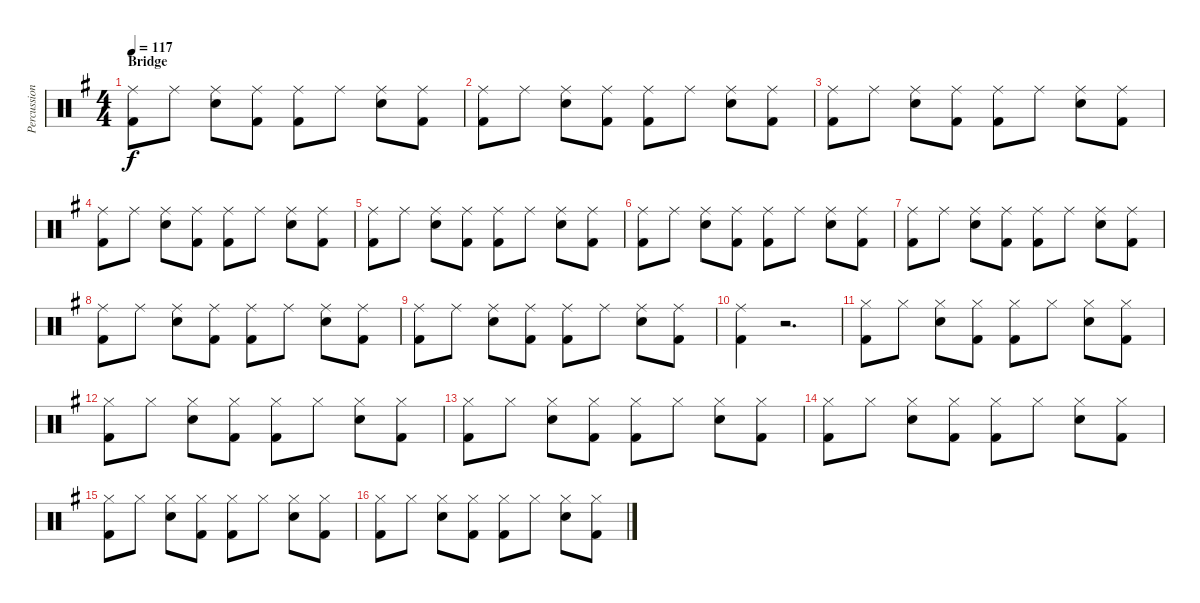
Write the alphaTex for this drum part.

\track ("Percussion" "Percussion") {instrument percussion}
\staff {score}
\articulation defaults
\ts (4 4)
\section ("" "Bridge")
\tempo 117
\clef neutral
\ks g
("Ride (middle)" "Kick (hit) 2").8{dy f} "Ride (middle)".8 ("Ride (middle)" "Electric Snare (hit)").8 ("Ride (middle)" "Kick (hit) 2").8 ("Ride (middle)" "Kick (hit) 2").8 "Ride (middle)".8 ("Ride (middle)" "Electric Snare (hit)").8 ("Ride (middle)" "Kick (hit) 2").8 |
("Ride (middle)" "Kick (hit) 2").8 "Ride (middle)".8 ("Ride (middle)" "Electric Snare (hit)").8 ("Ride (middle)" "Kick (hit) 2").8 ("Ride (middle)" "Kick (hit) 2").8 "Ride (middle)".8 ("Ride (middle)" "Electric Snare (hit)").8 ("Ride (middle)" "Kick (hit) 2").8 |
("Ride (middle)" "Kick (hit) 2").8 "Ride (middle)".8 ("Ride (middle)" "Electric Snare (hit)").8 ("Ride (middle)" "Kick (hit) 2").8 ("Ride (middle)" "Kick (hit) 2").8 "Ride (middle)".8 ("Ride (middle)" "Electric Snare (hit)").8 ("Ride (middle)" "Kick (hit) 2").8 |
("Ride (middle)" "Kick (hit) 2").8 "Ride (middle)".8 ("Ride (middle)" "Electric Snare (hit)").8 ("Ride (middle)" "Kick (hit) 2").8 ("Ride (middle)" "Kick (hit) 2").8 "Ride (middle)".8 ("Ride (middle)" "Electric Snare (hit)").8 ("Ride (middle)" "Kick (hit) 2").8 |
("Ride (middle)" "Kick (hit) 2").8 "Ride (middle)".8 ("Ride (middle)" "Electric Snare (hit)").8 ("Ride (middle)" "Kick (hit) 2").8 ("Ride (middle)" "Kick (hit) 2").8 "Ride (middle)".8 ("Ride (middle)" "Electric Snare (hit)").8 ("Ride (middle)" "Kick (hit) 2").8 |
("Ride (middle)" "Kick (hit) 2").8 "Ride (middle)".8 ("Ride (middle)" "Electric Snare (hit)").8 ("Ride (middle)" "Kick (hit) 2").8 ("Ride (middle)" "Kick (hit) 2").8 "Ride (middle)".8 ("Ride (middle)" "Electric Snare (hit)").8 ("Ride (middle)" "Kick (hit) 2").8 |
("Ride (middle)" "Kick (hit) 2").8 "Ride (middle)".8 ("Ride (middle)" "Electric Snare (hit)").8 ("Ride (middle)" "Kick (hit) 2").8 ("Ride (middle)" "Kick (hit) 2").8 "Ride (middle)".8 ("Ride (middle)" "Electric Snare (hit)").8 ("Ride (middle)" "Kick (hit) 2").8 |
("Ride (middle)" "Kick (hit) 2").8 "Ride (middle)".8 ("Ride (middle)" "Electric Snare (hit)").8 ("Ride (middle)" "Kick (hit) 2").8 ("Ride (middle)" "Kick (hit) 2").8 "Ride (middle)".8 ("Ride (middle)" "Electric Snare (hit)").8 ("Ride (middle)" "Kick (hit) 2").8 |
("Ride (middle)" "Kick (hit) 2").8 "Ride (middle)".8 ("Ride (middle)" "Electric Snare (hit)").8 ("Ride (middle)" "Kick (hit) 2").8 ("Ride (middle)" "Kick (hit) 2").8 "Ride (middle)".8 ("Ride (middle)" "Electric Snare (hit)").8 ("Ride (middle)" "Kick (hit) 2").8 |
("Ride (middle)" "Kick (hit) 2").4 r.2{d} |
("Hi-Hat (closed)" "Kick (hit) 2").8 "Hi-Hat (closed)".8 ("Hi-Hat (closed)" "Electric Snare (hit)").8 ("Hi-Hat (closed)" "Kick (hit) 2").8 ("Hi-Hat (closed)" "Kick (hit) 2").8 "Hi-Hat (closed)".8 ("Hi-Hat (closed)" "Electric Snare (hit)").8 ("Hi-Hat (closed)" "Kick (hit) 2").8 |
("Hi-Hat (closed)" "Kick (hit) 2").8 "Hi-Hat (closed)".8 ("Hi-Hat (closed)" "Electric Snare (hit)").8 ("Hi-Hat (closed)" "Kick (hit) 2").8 ("Hi-Hat (closed)" "Kick (hit) 2").8 "Hi-Hat (closed)".8 ("Hi-Hat (closed)" "Electric Snare (hit)").8 ("Hi-Hat (closed)" "Kick (hit) 2").8 |
("Hi-Hat (closed)" "Kick (hit) 2").8 "Hi-Hat (closed)".8 ("Hi-Hat (closed)" "Electric Snare (hit)").8 ("Hi-Hat (closed)" "Kick (hit) 2").8 ("Hi-Hat (closed)" "Kick (hit) 2").8 "Hi-Hat (closed)".8 ("Hi-Hat (closed)" "Electric Snare (hit)").8 ("Hi-Hat (closed)" "Kick (hit) 2").8 |
("Hi-Hat (closed)" "Kick (hit) 2").8 "Hi-Hat (closed)".8 ("Hi-Hat (closed)" "Electric Snare (hit)").8 ("Hi-Hat (closed)" "Kick (hit) 2").8 ("Hi-Hat (closed)" "Kick (hit) 2").8 "Hi-Hat (closed)".8 ("Hi-Hat (closed)" "Electric Snare (hit)").8 ("Hi-Hat (closed)" "Kick (hit) 2").8 |
("Hi-Hat (closed)" "Kick (hit) 2").8 "Hi-Hat (closed)".8 ("Hi-Hat (closed)" "Electric Snare (hit)").8 ("Hi-Hat (closed)" "Kick (hit) 2").8 ("Hi-Hat (closed)" "Kick (hit) 2").8 "Hi-Hat (closed)".8 ("Hi-Hat (closed)" "Electric Snare (hit)").8 ("Hi-Hat (closed)" "Kick (hit) 2").8 |
("Hi-Hat (closed)" "Kick (hit) 2").8 "Hi-Hat (closed)".8 ("Hi-Hat (closed)" "Electric Snare (hit)").8 ("Hi-Hat (closed)" "Kick (hit) 2").8 ("Hi-Hat (closed)" "Kick (hit) 2").8 "Hi-Hat (closed)".8 ("Hi-Hat (closed)" "Electric Snare (hit)").8 ("Hi-Hat (closed)" "Kick (hit) 2").8
